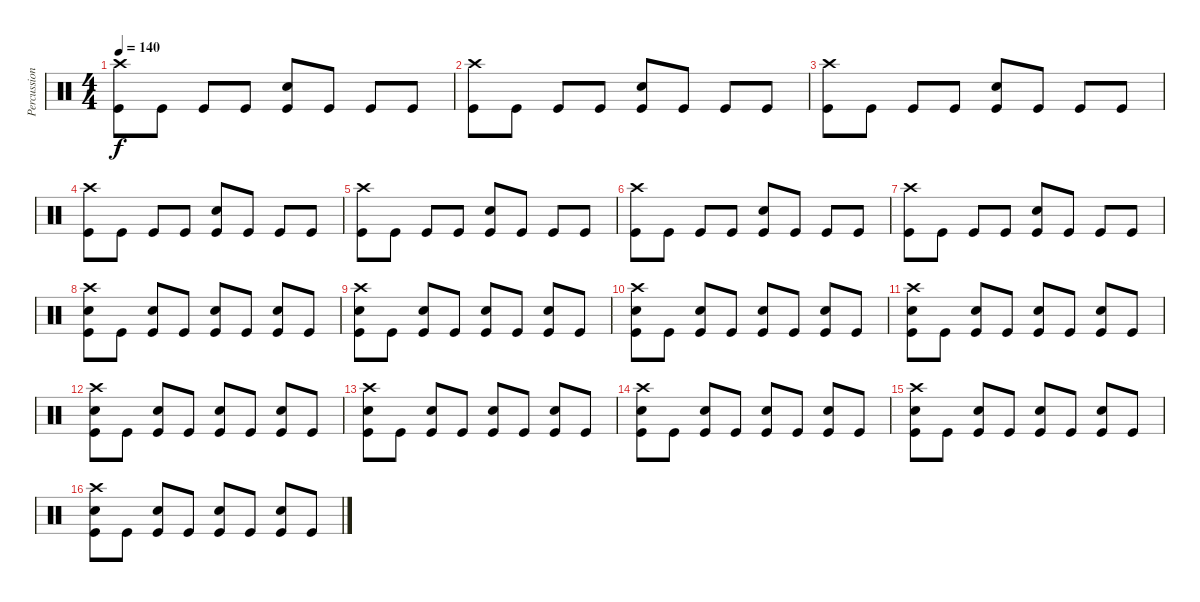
\track ("Percussion" "Percussion") {instrument percussion}
\staff {score}
\articulation defaults
\ts (4 4)
\tempo 140
\clef neutral
\ks c
("Crash high (hit)" "Kick (hit)").8{dy f} "Kick (hit)".8 "Kick (hit)".8 "Kick (hit)".8 ("Snare (hit) 2" "Kick (hit)").8 "Kick (hit)".8 "Kick (hit)".8 "Kick (hit)".8 |
("Crash high (hit)" "Kick (hit)").8 "Kick (hit)".8 "Kick (hit)".8 "Kick (hit)".8 ("Snare (hit) 2" "Kick (hit)").8 "Kick (hit)".8 "Kick (hit)".8 "Kick (hit)".8 |
("Crash high (hit)" "Kick (hit)").8 "Kick (hit)".8 "Kick (hit)".8 "Kick (hit)".8 ("Snare (hit) 2" "Kick (hit)").8 "Kick (hit)".8 "Kick (hit)".8 "Kick (hit)".8 |
("Crash high (hit)" "Kick (hit)").8 "Kick (hit)".8 "Kick (hit)".8 "Kick (hit)".8 ("Snare (hit) 2" "Kick (hit)").8 "Kick (hit)".8 "Kick (hit)".8 "Kick (hit)".8 |
("Crash high (hit)" "Kick (hit)").8 "Kick (hit)".8 "Kick (hit)".8 "Kick (hit)".8 ("Snare (hit) 2" "Kick (hit)").8 "Kick (hit)".8 "Kick (hit)".8 "Kick (hit)".8 |
("Crash high (hit)" "Kick (hit)").8 "Kick (hit)".8 "Kick (hit)".8 "Kick (hit)".8 ("Snare (hit) 2" "Kick (hit)").8 "Kick (hit)".8 "Kick (hit)".8 "Kick (hit)".8 |
("Crash high (hit)" "Kick (hit)").8 "Kick (hit)".8 "Kick (hit)".8 "Kick (hit)".8 ("Snare (hit) 2" "Kick (hit)").8 "Kick (hit)".8 "Kick (hit)".8 "Kick (hit)".8 |
("Crash high (hit)" "Snare (hit) 2" "Kick (hit)").8 "Kick (hit)".8 ("Snare (hit) 2" "Kick (hit)").8 "Kick (hit)".8 ("Snare (hit) 2" "Kick (hit)").8 "Kick (hit)".8 ("Snare (hit) 2" "Kick (hit)").8 "Kick (hit)".8 |
("Crash high (hit)" "Snare (hit) 2" "Kick (hit)").8 "Kick (hit)".8 ("Snare (hit) 2" "Kick (hit)").8 "Kick (hit)".8 ("Snare (hit) 2" "Kick (hit)").8 "Kick (hit)".8 ("Snare (hit) 2" "Kick (hit)").8 "Kick (hit)".8 |
("Crash high (hit)" "Snare (hit) 2" "Kick (hit)").8 "Kick (hit)".8 ("Snare (hit) 2" "Kick (hit)").8 "Kick (hit)".8 ("Snare (hit) 2" "Kick (hit)").8 "Kick (hit)".8 ("Snare (hit) 2" "Kick (hit)").8 "Kick (hit)".8 |
("Crash high (hit)" "Snare (hit) 2" "Kick (hit)").8 "Kick (hit)".8 ("Snare (hit) 2" "Kick (hit)").8 "Kick (hit)".8 ("Snare (hit) 2" "Kick (hit)").8 "Kick (hit)".8 ("Snare (hit) 2" "Kick (hit)").8 "Kick (hit)".8 |
("Crash high (hit)" "Snare (hit) 2" "Kick (hit)").8 "Kick (hit)".8 ("Snare (hit) 2" "Kick (hit)").8 "Kick (hit)".8 ("Snare (hit) 2" "Kick (hit)").8 "Kick (hit)".8 ("Snare (hit) 2" "Kick (hit)").8 "Kick (hit)".8 |
("Crash high (hit)" "Snare (hit) 2" "Kick (hit)").8 "Kick (hit)".8 ("Snare (hit) 2" "Kick (hit)").8 "Kick (hit)".8 ("Snare (hit) 2" "Kick (hit)").8 "Kick (hit)".8 ("Snare (hit) 2" "Kick (hit)").8 "Kick (hit)".8 |
("Crash high (hit)" "Snare (hit) 2" "Kick (hit)").8 "Kick (hit)".8 ("Snare (hit) 2" "Kick (hit)").8 "Kick (hit)".8 ("Snare (hit) 2" "Kick (hit)").8 "Kick (hit)".8 ("Snare (hit) 2" "Kick (hit)").8 "Kick (hit)".8 |
("Crash high (hit)" "Snare (hit) 2" "Kick (hit)").8 "Kick (hit)".8 ("Snare (hit) 2" "Kick (hit)").8 "Kick (hit)".8 ("Snare (hit) 2" "Kick (hit)").8 "Kick (hit)".8 ("Snare (hit) 2" "Kick (hit)").8 "Kick (hit)".8 |
("Crash high (hit)" "Snare (hit) 2" "Kick (hit)").8 "Kick (hit)".8 ("Snare (hit) 2" "Kick (hit)").8 "Kick (hit)".8 ("Snare (hit) 2" "Kick (hit)").8 "Kick (hit)".8 ("Snare (hit) 2" "Kick (hit)").8 "Kick (hit)".8
